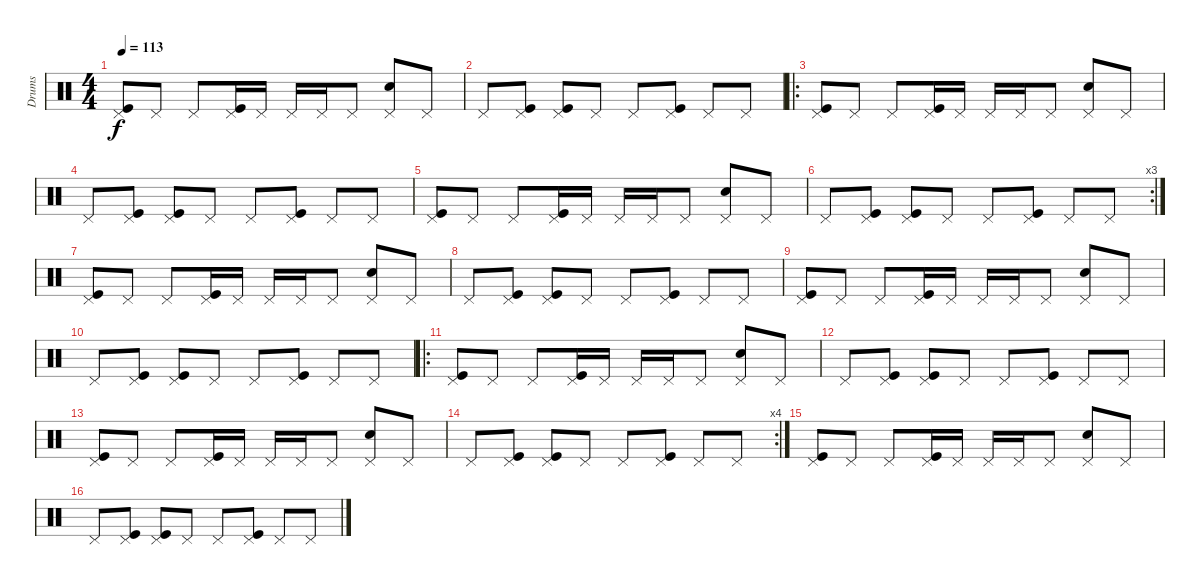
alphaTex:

\track ("Drums" "Drums") {instrument percussion}
\staff {score}
\articulation defaults
\ts (4 4)
\tempo 113
\clef neutral
\ks c
("Pedal Hi-Hat (hit)" "Kick (hit)").8{dy f} "Pedal Hi-Hat (hit)".8 "Pedal Hi-Hat (hit)".8 ("Pedal Hi-Hat (hit)" "Kick (hit)").16 "Pedal Hi-Hat (hit)".16 "Pedal Hi-Hat (hit)".16 "Pedal Hi-Hat (hit)".16 "Pedal Hi-Hat (hit)".8 ("Pedal Hi-Hat (hit)" "Snare (hit) 2").8 "Pedal Hi-Hat (hit)".8 |
"Pedal Hi-Hat (hit)".8 ("Pedal Hi-Hat (hit)" "Kick (hit)").8 ("Pedal Hi-Hat (hit)" "Kick (hit)").8 "Pedal Hi-Hat (hit)".8 "Pedal Hi-Hat (hit)".8 ("Pedal Hi-Hat (hit)" "Kick (hit)").8 "Pedal Hi-Hat (hit)".8 "Pedal Hi-Hat (hit)".8 |
\ro
("Pedal Hi-Hat (hit)" "Kick (hit)").8 "Pedal Hi-Hat (hit)".8 "Pedal Hi-Hat (hit)".8 ("Pedal Hi-Hat (hit)" "Kick (hit)").16 "Pedal Hi-Hat (hit)".16 "Pedal Hi-Hat (hit)".16 "Pedal Hi-Hat (hit)".16 "Pedal Hi-Hat (hit)".8 ("Pedal Hi-Hat (hit)" "Snare (hit) 2").8 "Pedal Hi-Hat (hit)".8 |
"Pedal Hi-Hat (hit)".8 ("Pedal Hi-Hat (hit)" "Kick (hit)").8 ("Pedal Hi-Hat (hit)" "Kick (hit)").8 "Pedal Hi-Hat (hit)".8 "Pedal Hi-Hat (hit)".8 ("Pedal Hi-Hat (hit)" "Kick (hit)").8 "Pedal Hi-Hat (hit)".8 "Pedal Hi-Hat (hit)".8 |
("Pedal Hi-Hat (hit)" "Kick (hit)").8 "Pedal Hi-Hat (hit)".8 "Pedal Hi-Hat (hit)".8 ("Pedal Hi-Hat (hit)" "Kick (hit)").16 "Pedal Hi-Hat (hit)".16 "Pedal Hi-Hat (hit)".16 "Pedal Hi-Hat (hit)".16 "Pedal Hi-Hat (hit)".8 ("Pedal Hi-Hat (hit)" "Snare (hit) 2").8 "Pedal Hi-Hat (hit)".8 |
\rc 3 "Pedal Hi-Hat (hit)".8
("Pedal Hi-Hat (hit)" "Kick (hit)").8 ("Pedal Hi-Hat (hit)" "Kick (hit)").8 "Pedal Hi-Hat (hit)".8 "Pedal Hi-Hat (hit)".8 ("Pedal Hi-Hat (hit)" "Kick (hit)").8 "Pedal Hi-Hat (hit)".8 "Pedal Hi-Hat (hit)".8 |
("Pedal Hi-Hat (hit)" "Kick (hit)").8 "Pedal Hi-Hat (hit)".8 "Pedal Hi-Hat (hit)".8 ("Pedal Hi-Hat (hit)" "Kick (hit)").16 "Pedal Hi-Hat (hit)".16 "Pedal Hi-Hat (hit)".16 "Pedal Hi-Hat (hit)".16 "Pedal Hi-Hat (hit)".8 ("Pedal Hi-Hat (hit)" "Snare (hit) 2").8 "Pedal Hi-Hat (hit)".8 |
"Pedal Hi-Hat (hit)".8 ("Pedal Hi-Hat (hit)" "Kick (hit)").8 ("Pedal Hi-Hat (hit)" "Kick (hit)").8 "Pedal Hi-Hat (hit)".8 "Pedal Hi-Hat (hit)".8 ("Pedal Hi-Hat (hit)" "Kick (hit)").8 "Pedal Hi-Hat (hit)".8 "Pedal Hi-Hat (hit)".8 |
("Pedal Hi-Hat (hit)" "Kick (hit)").8 "Pedal Hi-Hat (hit)".8 "Pedal Hi-Hat (hit)".8 ("Pedal Hi-Hat (hit)" "Kick (hit)").16 "Pedal Hi-Hat (hit)".16 "Pedal Hi-Hat (hit)".16 "Pedal Hi-Hat (hit)".16 "Pedal Hi-Hat (hit)".8 ("Pedal Hi-Hat (hit)" "Snare (hit) 2").8 "Pedal Hi-Hat (hit)".8 |
"Pedal Hi-Hat (hit)".8 ("Pedal Hi-Hat (hit)" "Kick (hit)").8 ("Pedal Hi-Hat (hit)" "Kick (hit)").8 "Pedal Hi-Hat (hit)".8 "Pedal Hi-Hat (hit)".8 ("Pedal Hi-Hat (hit)" "Kick (hit)").8 "Pedal Hi-Hat (hit)".8 "Pedal Hi-Hat (hit)".8 |
\ro
("Pedal Hi-Hat (hit)" "Kick (hit)").8 "Pedal Hi-Hat (hit)".8 "Pedal Hi-Hat (hit)".8 ("Pedal Hi-Hat (hit)" "Kick (hit)").16 "Pedal Hi-Hat (hit)".16 "Pedal Hi-Hat (hit)".16 "Pedal Hi-Hat (hit)".16 "Pedal Hi-Hat (hit)".8 ("Pedal Hi-Hat (hit)" "Snare (hit) 2").8 "Pedal Hi-Hat (hit)".8 |
"Pedal Hi-Hat (hit)".8 ("Pedal Hi-Hat (hit)" "Kick (hit)").8 ("Pedal Hi-Hat (hit)" "Kick (hit)").8 "Pedal Hi-Hat (hit)".8 "Pedal Hi-Hat (hit)".8 ("Pedal Hi-Hat (hit)" "Kick (hit)").8 "Pedal Hi-Hat (hit)".8 "Pedal Hi-Hat (hit)".8 |
("Pedal Hi-Hat (hit)" "Kick (hit)").8 "Pedal Hi-Hat (hit)".8 "Pedal Hi-Hat (hit)".8 ("Pedal Hi-Hat (hit)" "Kick (hit)").16 "Pedal Hi-Hat (hit)".16 "Pedal Hi-Hat (hit)".16 "Pedal Hi-Hat (hit)".16 "Pedal Hi-Hat (hit)".8 ("Pedal Hi-Hat (hit)" "Snare (hit) 2").8 "Pedal Hi-Hat (hit)".8 |
\rc 4 "Pedal Hi-Hat (hit)".8
("Pedal Hi-Hat (hit)" "Kick (hit)").8 ("Pedal Hi-Hat (hit)" "Kick (hit)").8 "Pedal Hi-Hat (hit)".8 "Pedal Hi-Hat (hit)".8 ("Pedal Hi-Hat (hit)" "Kick (hit)").8 "Pedal Hi-Hat (hit)".8 "Pedal Hi-Hat (hit)".8 |
("Pedal Hi-Hat (hit)" "Kick (hit)").8 "Pedal Hi-Hat (hit)".8 "Pedal Hi-Hat (hit)".8 ("Pedal Hi-Hat (hit)" "Kick (hit)").16 "Pedal Hi-Hat (hit)".16 "Pedal Hi-Hat (hit)".16 "Pedal Hi-Hat (hit)".16 "Pedal Hi-Hat (hit)".8 ("Pedal Hi-Hat (hit)" "Snare (hit) 2").8 "Pedal Hi-Hat (hit)".8 |
"Pedal Hi-Hat (hit)".8 ("Pedal Hi-Hat (hit)" "Kick (hit)").8 ("Pedal Hi-Hat (hit)" "Kick (hit)").8 "Pedal Hi-Hat (hit)".8 "Pedal Hi-Hat (hit)".8 ("Pedal Hi-Hat (hit)" "Kick (hit)").8 "Pedal Hi-Hat (hit)".8 "Pedal Hi-Hat (hit)".8
